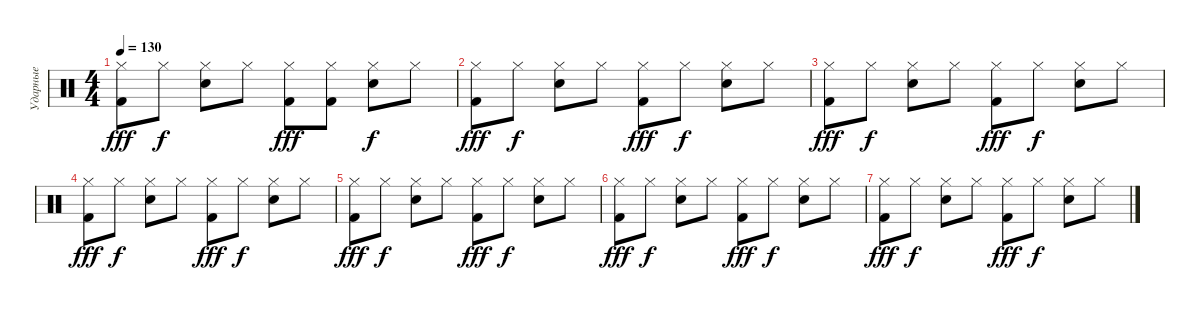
\track ("Ударные" "Ударные") {instrument percussion}
\staff {score}
\articulation defaults
\ts (4 4)
\tempo 130
\clef neutral
\ks c
("Kick (hit) 2" "Hi-Hat (closed)").8{dy fff} "Hi-Hat (closed)".8{dy f} ("Snare (hit) 2" "Hi-Hat (closed)").8 "Hi-Hat (closed)".8 ("Kick (hit) 2" "Hi-Hat (closed)").8{dy fff} ("Kick (hit) 2" "Hi-Hat (closed)").8 ("Snare (hit) 2" "Hi-Hat (closed)").8{dy f} "Hi-Hat (closed)".8 |
("Kick (hit) 2" "Hi-Hat (closed)").8{dy fff} "Hi-Hat (closed)".8{dy f} ("Snare (hit) 2" "Hi-Hat (closed)").8 "Hi-Hat (closed)".8 ("Kick (hit) 2" "Hi-Hat (closed)").8{dy fff} "Hi-Hat (closed)".8{dy f} ("Snare (hit) 2" "Hi-Hat (closed)").8 "Hi-Hat (closed)".8 |
("Kick (hit) 2" "Hi-Hat (closed)").8{dy fff} "Hi-Hat (closed)".8{dy f} ("Snare (hit) 2" "Hi-Hat (closed)").8 "Hi-Hat (closed)".8 ("Kick (hit) 2" "Hi-Hat (closed)").8{dy fff} "Hi-Hat (closed)".8{dy f} ("Snare (hit) 2" "Hi-Hat (closed)").8 "Hi-Hat (closed)".8 |
("Kick (hit) 2" "Hi-Hat (closed)").8{dy fff} "Hi-Hat (closed)".8{dy f} ("Snare (hit) 2" "Hi-Hat (closed)").8 "Hi-Hat (closed)".8 ("Kick (hit) 2" "Hi-Hat (closed)").8{dy fff} "Hi-Hat (closed)".8{dy f} ("Snare (hit) 2" "Hi-Hat (closed)").8 "Hi-Hat (closed)".8 |
("Kick (hit) 2" "Hi-Hat (closed)").8{dy fff} "Hi-Hat (closed)".8{dy f} ("Snare (hit) 2" "Hi-Hat (closed)").8 "Hi-Hat (closed)".8 ("Kick (hit) 2" "Hi-Hat (closed)").8{dy fff} "Hi-Hat (closed)".8{dy f} ("Snare (hit) 2" "Hi-Hat (closed)").8 "Hi-Hat (closed)".8 |
("Kick (hit) 2" "Hi-Hat (closed)").8{dy fff} "Hi-Hat (closed)".8{dy f} ("Snare (hit) 2" "Hi-Hat (closed)").8 "Hi-Hat (closed)".8 ("Kick (hit) 2" "Hi-Hat (closed)").8{dy fff} "Hi-Hat (closed)".8{dy f} ("Snare (hit) 2" "Hi-Hat (closed)").8 "Hi-Hat (closed)".8 |
("Kick (hit) 2" "Hi-Hat (closed)").8{dy fff} "Hi-Hat (closed)".8{dy f} ("Snare (hit) 2" "Hi-Hat (closed)").8 "Hi-Hat (closed)".8 ("Kick (hit) 2" "Hi-Hat (closed)").8{dy fff} "Hi-Hat (closed)".8{dy f} ("Snare (hit) 2" "Hi-Hat (closed)").8 "Hi-Hat (closed)".8
